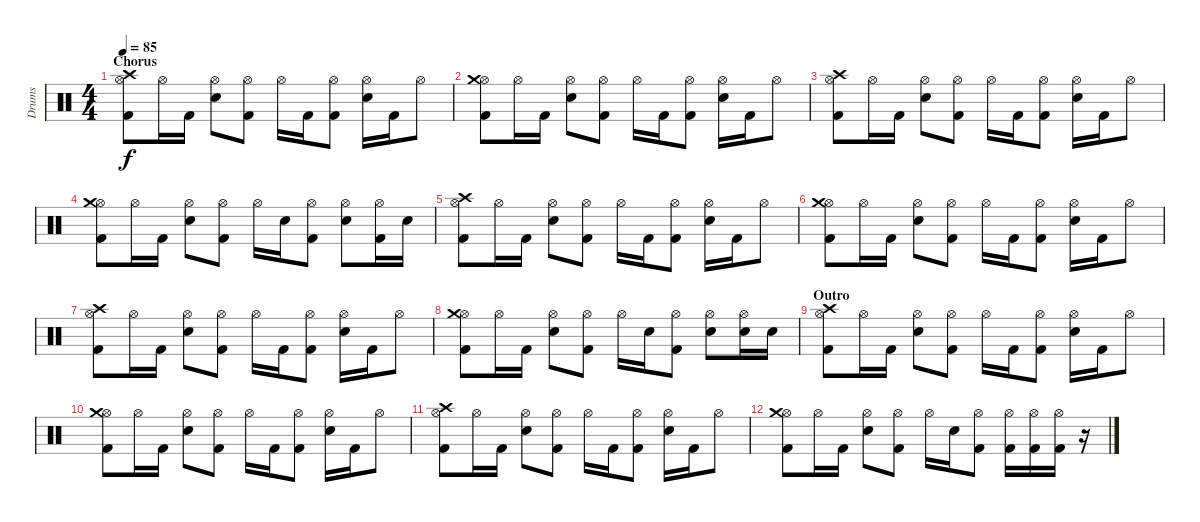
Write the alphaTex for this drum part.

\track ("Drums" "Drums") {instrument percussion}
\staff {score}
\articulation defaults
\ts (4 4)
\section ("" "Chorus")
\tempo 85
\clef neutral
\ks c
("Hi-Hat (open)" "Kick (hit) 2" "Crash high (hit)").8{dy f} "Hi-Hat (open)".16 "Kick (hit) 2".16 ("Hi-Hat (open)" "Electric Snare (hit)").8 ("Hi-Hat (open)" "Kick (hit) 2").8 "Hi-Hat (open)".16 "Kick (hit) 2".16 ("Hi-Hat (open)" "Kick (hit) 2").8 ("Hi-Hat (open)" "Electric Snare (hit)").16 "Kick (hit) 2".16 "Hi-Hat (open)".8 |
("Hi-Hat (open)" "Kick (hit) 2" "Crash medium (hit)").8 "Hi-Hat (open)".16 "Kick (hit) 2".16 ("Hi-Hat (open)" "Electric Snare (hit)").8 ("Hi-Hat (open)" "Kick (hit) 2").8 "Hi-Hat (open)".16 "Kick (hit) 2".16 ("Hi-Hat (open)" "Kick (hit) 2").8 ("Hi-Hat (open)" "Electric Snare (hit)").16 "Kick (hit) 2".16 "Hi-Hat (open)".8 |
("Hi-Hat (open)" "Kick (hit) 2" "Crash high (hit)").8 "Hi-Hat (open)".16 "Kick (hit) 2".16 ("Hi-Hat (open)" "Electric Snare (hit)").8 ("Hi-Hat (open)" "Kick (hit) 2").8 "Hi-Hat (open)".16 "Kick (hit) 2".16 ("Hi-Hat (open)" "Kick (hit) 2").8 ("Hi-Hat (open)" "Electric Snare (hit)").16 "Kick (hit) 2".16 "Hi-Hat (open)".8 |
("Hi-Hat (open)" "Kick (hit) 2" "Crash medium (hit)").8 "Hi-Hat (open)".16 "Kick (hit) 2".16 ("Hi-Hat (open)" "Electric Snare (hit)").8 ("Hi-Hat (open)" "Kick (hit) 2").8 "Hi-Hat (open)".16 "Electric Snare (hit)".16 ("Hi-Hat (open)" "Kick (hit) 2").8 ("Hi-Hat (open)" "Electric Snare (hit)").8 ("Hi-Hat (open)" "Kick (hit) 2").16 "Electric Snare (hit)".16 |
("Hi-Hat (open)" "Kick (hit) 2" "Crash high (hit)").8 "Hi-Hat (open)".16 "Kick (hit) 2".16 ("Hi-Hat (open)" "Electric Snare (hit)").8 ("Hi-Hat (open)" "Kick (hit) 2").8 "Hi-Hat (open)".16 "Kick (hit) 2".16 ("Hi-Hat (open)" "Kick (hit) 2").8 ("Hi-Hat (open)" "Electric Snare (hit)").16 "Kick (hit) 2".16 "Hi-Hat (open)".8 |
("Hi-Hat (open)" "Kick (hit) 2" "Crash medium (hit)").8 "Hi-Hat (open)".16 "Kick (hit) 2".16 ("Hi-Hat (open)" "Electric Snare (hit)").8 ("Hi-Hat (open)" "Kick (hit) 2").8 "Hi-Hat (open)".16 "Kick (hit) 2".16 ("Hi-Hat (open)" "Kick (hit) 2").8 ("Hi-Hat (open)" "Electric Snare (hit)").16 "Kick (hit) 2".16 "Hi-Hat (open)".8 |
("Hi-Hat (open)" "Kick (hit) 2" "Crash high (hit)").8 "Hi-Hat (open)".16 "Kick (hit) 2".16 ("Hi-Hat (open)" "Electric Snare (hit)").8 ("Hi-Hat (open)" "Kick (hit) 2").8 "Hi-Hat (open)".16 "Kick (hit) 2".16 ("Hi-Hat (open)" "Kick (hit) 2").8 ("Hi-Hat (open)" "Electric Snare (hit)").16 "Kick (hit) 2".16 "Hi-Hat (open)".8 |
("Hi-Hat (open)" "Kick (hit) 2" "Crash medium (hit)").8 "Hi-Hat (open)".16 "Kick (hit) 2".16 ("Hi-Hat (open)" "Electric Snare (hit)").8 ("Hi-Hat (open)" "Kick (hit) 2").8 "Hi-Hat (open)".16 "Electric Snare (hit)".16 ("Hi-Hat (open)" "Kick (hit) 2").8 ("Hi-Hat (open)" "Electric Snare (hit)").8 ("Hi-Hat (open)" "Electric Snare (hit)").16 "Electric Snare (hit)".16 |
\section ("" "Outro")
("Hi-Hat (open)" "Kick (hit) 2" "Crash high (hit)").8 "Hi-Hat (open)".16 "Kick (hit) 2".16 ("Hi-Hat (open)" "Electric Snare (hit)").8 ("Hi-Hat (open)" "Kick (hit) 2").8 "Hi-Hat (open)".16 "Kick (hit) 2".16 ("Hi-Hat (open)" "Kick (hit) 2").8 ("Hi-Hat (open)" "Electric Snare (hit)").16 "Kick (hit) 2".16 "Hi-Hat (open)".8 |
("Hi-Hat (open)" "Kick (hit) 2" "Crash medium (hit)").8 "Hi-Hat (open)".16 "Kick (hit) 2".16 ("Hi-Hat (open)" "Electric Snare (hit)").8 ("Hi-Hat (open)" "Kick (hit) 2").8 "Hi-Hat (open)".16 "Kick (hit) 2".16 ("Hi-Hat (open)" "Kick (hit) 2").8 ("Hi-Hat (open)" "Electric Snare (hit)").16 "Kick (hit) 2".16 "Hi-Hat (open)".8 |
("Hi-Hat (open)" "Kick (hit) 2" "Crash high (hit)").8 "Hi-Hat (open)".16 "Kick (hit) 2".16 ("Hi-Hat (open)" "Electric Snare (hit)").8 ("Hi-Hat (open)" "Kick (hit) 2").8 "Hi-Hat (open)".16 "Kick (hit) 2".16 ("Hi-Hat (open)" "Kick (hit) 2").8 ("Hi-Hat (open)" "Electric Snare (hit)").16 "Kick (hit) 2".16 "Hi-Hat (open)".8 |
("Hi-Hat (open)" "Kick (hit) 2" "Crash medium (hit)").8 "Hi-Hat (open)".16 "Kick (hit) 2".16 ("Hi-Hat (open)" "Electric Snare (hit)").8 ("Hi-Hat (open)" "Kick (hit) 2").8 "Hi-Hat (open)".16 "Electric Snare (hit)".16 ("Hi-Hat (open)" "Kick (hit) 2").8 ("Hi-Hat (open)" "Kick (hit) 2").16 ("Hi-Hat (open)" "Kick (hit) 2").16 ("Hi-Hat (open)" "Kick (hit) 2").16 r.16
